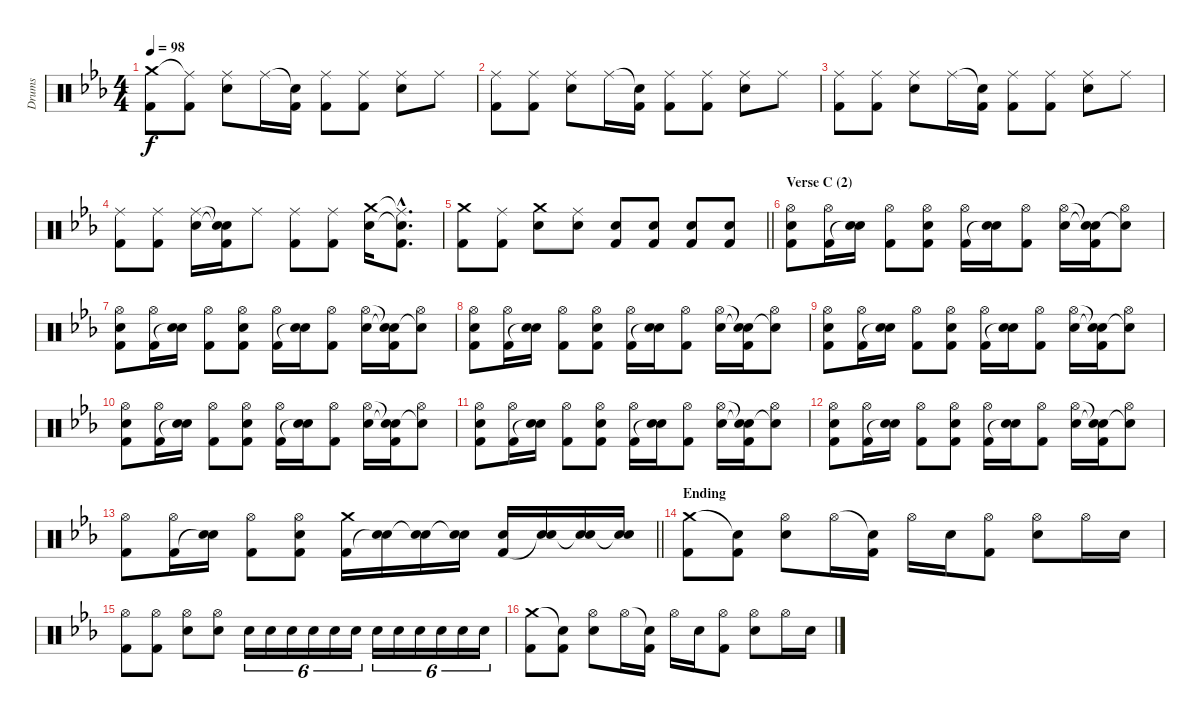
\track ("Drums" "Drums") {instrument percussion}
\staff {score}
\articulation defaults
\ts (4 4)
\tempo 98
\clef neutral
\ks cminor
("Crash medium (hit)" "Kick (hit) 2").8{dy f} ("Ride (middle)"{t} "Kick (hit) 2").8 ("Ride (middle)" "Electric Snare (hit)").8 "Ride (middle)".16 ("Snare (hit)"{t} "Kick (hit) 2").16 ("Ride (middle)" "Kick (hit) 2").8 ("Ride (middle)" "Kick (hit) 2").8 ("Ride (middle)" "Electric Snare (hit)").8 "Ride (middle)".8 |
("Ride (middle)" "Kick (hit) 2").8 ("Ride (middle)" "Kick (hit) 2").8 ("Ride (middle)" "Electric Snare (hit)").8 "Ride (middle)".16 ("Snare (hit)"{t} "Kick (hit) 2").16 ("Ride (middle)" "Kick (hit) 2").8 ("Ride (middle)" "Kick (hit) 2").8 ("Ride (middle)" "Electric Snare (hit)").8 "Ride (middle)".8 |
("Ride (middle)" "Kick (hit) 2").8 ("Ride (middle)" "Kick (hit) 2").8 ("Ride (middle)" "Electric Snare (hit)").8 "Ride (middle)".16 ("Snare (hit)"{t} "Kick (hit) 2").16 ("Ride (middle)" "Kick (hit) 2").8 ("Ride (middle)" "Kick (hit) 2").8 ("Ride (middle)" "Electric Snare (hit)").8 "Ride (middle)".8 |
("Ride (middle)" "Kick (hit) 2").8 ("Ride (middle)" "Kick (hit) 2").8 ("Ride (middle)" "Electric Snare (hit)").16 ("Snare (hit)"{t} "Snare (hit)"{t} "Kick (hit) 2").16 "Ride (middle)".8 ("Ride (middle)" "Kick (hit) 2").8 ("Ride (middle)" "Kick (hit) 2").8 ("Crash medium (hit)" "Electric Snare (hit)").16 ("Ride (middle)"{hac t} "Snare (hit)"{hac t} "Kick (hit) 2"{hac}).8{d} |
\barLineRight lightlight
("Crash medium (hit)" "Kick (hit) 2").8 ("Ride (middle)" "Kick (hit) 2").8 ("Crash medium (hit)" "Electric Snare (hit)").8 ("Ride (middle)" "Electric Snare (hit)").8 ("Electric Snare (hit)" "Kick (hit) 2").8 ("Electric Snare (hit)" "Kick (hit) 2").8 ("Electric Snare (hit)" "Kick (hit) 2").8 ("Electric Snare (hit)" "Kick (hit) 2").8 |
\section ("" "Verse C (2)")
("Hi-Hat (open)" "Electric Snare (hit)" "Kick (hit) 2").8 ("Hi-Hat (open)" "Kick (hit) 2").16 ("Electric Snare (hit)" "Snare (hit)"{t}).16 ("Hi-Hat (open)" "Kick (hit) 2").8 ("Hi-Hat (open)" "Electric Snare (hit)" "Kick (hit) 2").8 ("Hi-Hat (open)" "Kick (hit) 2").16 ("Electric Snare (hit)" "Snare (hit)"{t}).16 ("Hi-Hat (open)" "Kick (hit) 2").8 ("Hi-Hat (open)" "Electric Snare (hit)").16 ("Snare (hit)"{t} "Snare (hit)"{t} "Kick (hit) 2").16 ("Hi-Hat (open)" "Snare (hit)"{t}).8 |
("Hi-Hat (open)" "Electric Snare (hit)" "Kick (hit) 2").8 ("Hi-Hat (open)" "Kick (hit) 2").16 ("Electric Snare (hit)" "Snare (hit)"{t}).16 ("Hi-Hat (open)" "Kick (hit) 2").8 ("Hi-Hat (open)" "Electric Snare (hit)" "Kick (hit) 2").8 ("Hi-Hat (open)" "Kick (hit) 2").16 ("Electric Snare (hit)" "Snare (hit)"{t}).16 ("Hi-Hat (open)" "Kick (hit) 2").8 ("Hi-Hat (open)" "Electric Snare (hit)").16 ("Snare (hit)"{t} "Snare (hit)"{t} "Kick (hit) 2").16 ("Hi-Hat (open)" "Snare (hit)"{t}).8 |
("Hi-Hat (open)" "Electric Snare (hit)" "Kick (hit) 2").8 ("Hi-Hat (open)" "Kick (hit) 2").16 ("Electric Snare (hit)" "Snare (hit)"{t}).16 ("Hi-Hat (open)" "Kick (hit) 2").8 ("Hi-Hat (open)" "Electric Snare (hit)" "Kick (hit) 2").8 ("Hi-Hat (open)" "Kick (hit) 2").16 ("Electric Snare (hit)" "Snare (hit)"{t}).16 ("Hi-Hat (open)" "Kick (hit) 2").8 ("Hi-Hat (open)" "Electric Snare (hit)").16 ("Snare (hit)"{t} "Snare (hit)"{t} "Kick (hit) 2").16 ("Hi-Hat (open)" "Snare (hit)"{t}).8 |
("Hi-Hat (open)" "Electric Snare (hit)" "Kick (hit) 2").8 ("Hi-Hat (open)" "Kick (hit) 2").16 ("Electric Snare (hit)" "Snare (hit)"{t}).16 ("Hi-Hat (open)" "Kick (hit) 2").8 ("Hi-Hat (open)" "Electric Snare (hit)" "Kick (hit) 2").8 ("Hi-Hat (open)" "Kick (hit) 2").16 ("Electric Snare (hit)" "Snare (hit)"{t}).16 ("Hi-Hat (open)" "Kick (hit) 2").8 ("Hi-Hat (open)" "Electric Snare (hit)").16 ("Snare (hit)"{t} "Snare (hit)"{t} "Kick (hit) 2").16 ("Hi-Hat (open)" "Snare (hit)"{t}).8 |
("Hi-Hat (open)" "Electric Snare (hit)" "Kick (hit) 2").8 ("Hi-Hat (open)" "Kick (hit) 2").16 ("Electric Snare (hit)" "Snare (hit)"{t}).16 ("Hi-Hat (open)" "Kick (hit) 2").8 ("Hi-Hat (open)" "Electric Snare (hit)" "Kick (hit) 2").8 ("Hi-Hat (open)" "Kick (hit) 2").16 ("Electric Snare (hit)" "Snare (hit)"{t}).16 ("Hi-Hat (open)" "Kick (hit) 2").8 ("Hi-Hat (open)" "Electric Snare (hit)").16 ("Snare (hit)"{t} "Snare (hit)"{t} "Kick (hit) 2").16 ("Hi-Hat (open)" "Snare (hit)"{t}).8 |
("Hi-Hat (open)" "Electric Snare (hit)" "Kick (hit) 2").8 ("Hi-Hat (open)" "Kick (hit) 2").16 ("Electric Snare (hit)" "Snare (hit)"{t}).16 ("Hi-Hat (open)" "Kick (hit) 2").8 ("Hi-Hat (open)" "Electric Snare (hit)" "Kick (hit) 2").8 ("Hi-Hat (open)" "Kick (hit) 2").16 ("Electric Snare (hit)" "Snare (hit)"{t}).16 ("Hi-Hat (open)" "Kick (hit) 2").8 ("Hi-Hat (open)" "Electric Snare (hit)").16 ("Snare (hit)"{t} "Snare (hit)"{t} "Kick (hit) 2").16 ("Hi-Hat (open)" "Snare (hit)"{t}).8 |
("Hi-Hat (open)" "Electric Snare (hit)" "Kick (hit) 2").8 ("Hi-Hat (open)" "Kick (hit) 2").16 ("Electric Snare (hit)" "Snare (hit)"{t}).16 ("Hi-Hat (open)" "Kick (hit) 2").8 ("Hi-Hat (open)" "Electric Snare (hit)" "Kick (hit) 2").8 ("Hi-Hat (open)" "Kick (hit) 2").16 ("Electric Snare (hit)" "Snare (hit)"{t}).16 ("Hi-Hat (open)" "Kick (hit) 2").8 ("Hi-Hat (open)" "Electric Snare (hit)").16 ("Snare (hit)"{t} "Snare (hit)"{t} "Kick (hit) 2").16 ("Hi-Hat (open)" "Snare (hit)"{t}).8 |
\barLineRight lightlight
("Hi-Hat (open)" "Kick (hit) 2").8 ("Hi-Hat (open)" "Kick (hit) 2").16 ("Electric Snare (hit)" "Snare (hit)"{t}).16 ("Hi-Hat (open)" "Kick (hit) 2").8 ("Hi-Hat (open)" "Electric Snare (hit)" "Kick (hit) 2").8 ("Crash medium (hit)" "Kick (hit) 2").16 ("Electric Snare (hit)" "Snare (hit)"{t}).16 ("Electric Snare (hit)" "Snare (hit)"{t}).16 ("Electric Snare (hit)" "Snare (hit)"{t}).16 ("Electric Snare (hit)" "Kick (hit) 2").16 ("Electric Snare (hit)" "Snare (hit)"{t}).16 ("Electric Snare (hit)" "Snare (hit)"{t}).16 ("Electric Snare (hit)" "Snare (hit)"{t}).16 |
\section ("" "Ending")
("Crash medium (hit)" "Kick (hit) 2").8 ("Snare (hit)"{t} "Kick (hit) 2").8 ("Hi-Hat (open)" "Electric Snare (hit)").8 "Hi-Hat (open)".16 ("Snare (hit)"{t} "Kick (hit) 2").16 "Hi-Hat (open)".16 "Electric Snare (hit)".16 ("Hi-Hat (open)" "Kick (hit) 2").8 ("Hi-Hat (open)" "Electric Snare (hit)").8 "Hi-Hat (open)".16 "Electric Snare (hit)".16 |
("Hi-Hat (open)" "Kick (hit) 2").8 ("Hi-Hat (open)" "Kick (hit) 2").8 ("Hi-Hat (open)" "Electric Snare (hit)").8 ("Hi-Hat (open)" "Electric Snare (hit)").8 "Electric Snare (hit)".16{tu (6 4)} "Electric Snare (hit)".16{tu (6 4)} "Electric Snare (hit)".16{tu (6 4)} "Electric Snare (hit)".16{tu (6 4)} "Electric Snare (hit)".16{tu (6 4)} "Electric Snare (hit)".16{tu (6 4)} "Electric Snare (hit)".16{tu (6 4)} "Electric Snare (hit)".16{tu (6 4)} "Electric Snare (hit)".16{tu (6 4)} "Electric Snare (hit)".16{tu (6 4)} "Electric Snare (hit)".16{tu (6 4)} "Electric Snare (hit)".16{tu (6 4)} |
("Crash medium (hit)" "Kick (hit) 2").8 ("Snare (hit)"{t} "Kick (hit) 2").8 ("Hi-Hat (open)" "Electric Snare (hit)").8 "Hi-Hat (open)".16 ("Snare (hit)"{t} "Kick (hit) 2").16 "Hi-Hat (open)".16 "Electric Snare (hit)".16 ("Hi-Hat (open)" "Kick (hit) 2").8 ("Hi-Hat (open)" "Electric Snare (hit)").8 "Hi-Hat (open)".16 "Electric Snare (hit)".16
